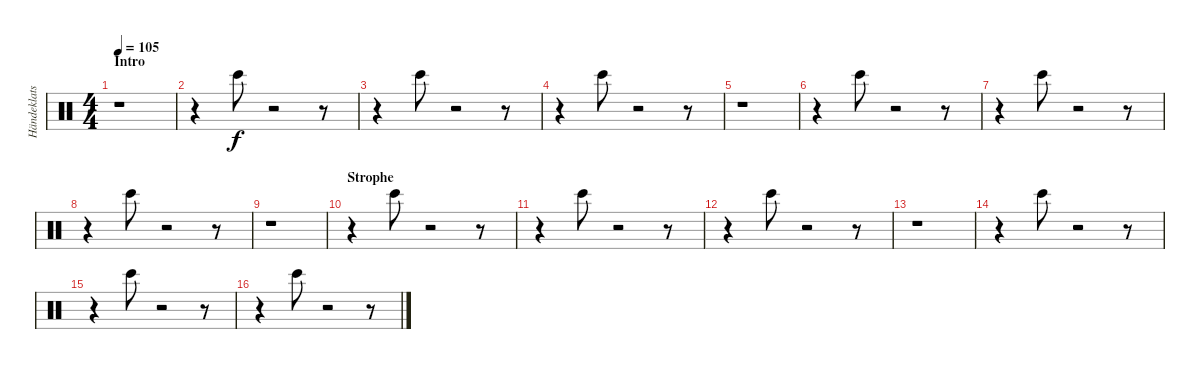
\track ("Händeklatschen" "Händeklats") {instrument percussion}
\staff {score}
\articulation defaults
\ts (4 4)
\section ("" "Intro")
\tempo 105
\clef neutral
\ks c
r.1{dy f} |
r.4 "Bongo High (hit)".8 r.2 r.8 |
r.4 "Bongo High (hit)".8 r.2 r.8 |
r.4 "Bongo High (hit)".8 r.2 r.8 |
r.1 |
r.4 "Bongo High (hit)".8 r.2 r.8 |
r.4 "Bongo High (hit)".8 r.2 r.8 |
r.4 "Bongo High (hit)".8 r.2 r.8 |
r.1 |
\section ("" "Strophe")
r.4 "Bongo High (hit)".8 r.2 r.8 |
r.4 "Bongo High (hit)".8 r.2 r.8 |
r.4 "Bongo High (hit)".8 r.2 r.8 |
r.1 |
r.4 "Bongo High (hit)".8 r.2 r.8 |
r.4 "Bongo High (hit)".8 r.2 r.8 |
r.4 "Bongo High (hit)".8 r.2 r.8
